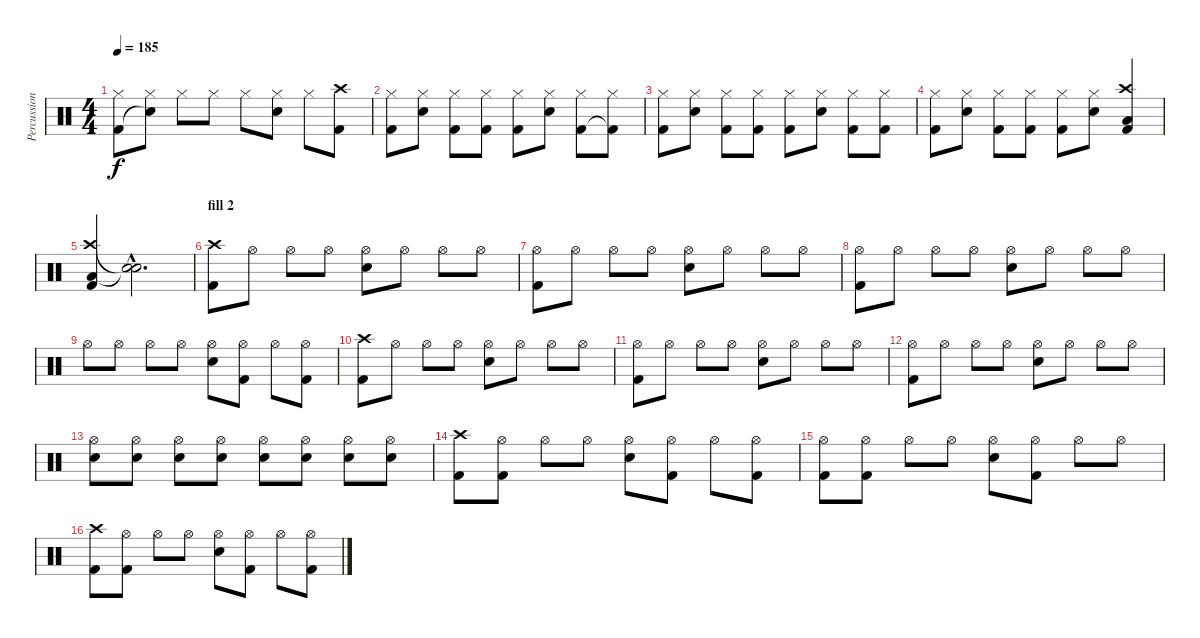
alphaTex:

\track ("Percussion" "Percussion") {instrument percussion}
\staff {score}
\articulation defaults
\ts (4 4)
\tempo 185
\clef neutral
\ks c
("Hi-Hat (closed)" "Kick (hit) 2").8{dy f} ("Hi-Hat (closed)" "Snare (hit)"{t}).8 "Hi-Hat (closed)".8 "Hi-Hat (closed)".8 "Hi-Hat (closed)".8 ("Hi-Hat (closed)" "Snare (hit) 2").8 "Hi-Hat (closed)".8 ("Crash high (hit)" "Kick (hit) 2").8 |
("Hi-Hat (closed)" "Kick (hit) 2").8 ("Hi-Hat (closed)" "Snare (hit) 2").8 ("Hi-Hat (closed)" "Kick (hit) 2").8 ("Hi-Hat (closed)" "Kick (hit) 2").8 ("Hi-Hat (closed)" "Kick (hit) 2").8 ("Hi-Hat (closed)" "Snare (hit) 2").8 ("Hi-Hat (closed)" "Kick (hit) 2").8 ("Hi-Hat (closed)" "Kick (hit) 2"{t}).8 |
("Hi-Hat (closed)" "Kick (hit) 2").8 ("Hi-Hat (closed)" "Snare (hit) 2").8 ("Hi-Hat (closed)" "Kick (hit) 2").8 ("Hi-Hat (closed)" "Kick (hit) 2").8 ("Hi-Hat (closed)" "Kick (hit) 2").8 ("Hi-Hat (closed)" "Snare (hit) 2").8 ("Hi-Hat (closed)" "Kick (hit) 2").8 ("Hi-Hat (closed)" "Kick (hit) 2").8 |
("Hi-Hat (closed)" "Kick (hit) 2").8 ("Hi-Hat (closed)" "Snare (hit) 2").8 ("Hi-Hat (closed)" "Kick (hit) 2").8 ("Hi-Hat (closed)" "Kick (hit) 2").8 ("Hi-Hat (closed)" "Kick (hit) 2").8 ("Hi-Hat (closed)" "Snare (hit) 2").8 ("Crash high (hit)" "Low Tom (hit)" "Kick (hit) 2").4 |
("Crash high (hit)" "Low Tom (hit)" "Kick (hit) 2").4 ("Snare (hit)"{hac t} "Snare (hit)"{hac t}).2{d} |
\section ("" "fill 2")
("Crash high (hit)" "Kick (hit) 2").8 "Hi-Hat (open)".8 "Hi-Hat (open)".8 "Hi-Hat (open)".8 ("Hi-Hat (open)" "Snare (hit) 2").8 "Hi-Hat (open)".8 "Hi-Hat (open)".8 "Hi-Hat (open)".8 |
("Hi-Hat (open)" "Kick (hit) 2").8 "Hi-Hat (open)".8 "Hi-Hat (open)".8 "Hi-Hat (open)".8 ("Hi-Hat (open)" "Snare (hit) 2").8 "Hi-Hat (open)".8 "Hi-Hat (open)".8 "Hi-Hat (open)".8 |
("Hi-Hat (open)" "Kick (hit) 2").8 "Hi-Hat (open)".8 "Hi-Hat (open)".8 "Hi-Hat (open)".8 ("Hi-Hat (open)" "Snare (hit) 2").8 "Hi-Hat (open)".8 "Hi-Hat (open)".8 "Hi-Hat (open)".8 |
"Hi-Hat (open)".8 "Hi-Hat (open)".8 "Hi-Hat (open)".8 "Hi-Hat (open)".8 ("Hi-Hat (open)" "Snare (hit) 2").8 ("Hi-Hat (open)" "Kick (hit) 2").8 "Hi-Hat (open)".8 ("Hi-Hat (open)" "Kick (hit) 2").8 |
("Crash high (hit)" "Kick (hit) 2").8 "Hi-Hat (open)".8 "Hi-Hat (open)".8 "Hi-Hat (open)".8 ("Hi-Hat (open)" "Snare (hit) 2").8 "Hi-Hat (open)".8 "Hi-Hat (open)".8 "Hi-Hat (open)".8 |
("Hi-Hat (open)" "Kick (hit) 2").8 "Hi-Hat (open)".8 "Hi-Hat (open)".8 "Hi-Hat (open)".8 ("Hi-Hat (open)" "Snare (hit) 2").8 "Hi-Hat (open)".8 "Hi-Hat (open)".8 "Hi-Hat (open)".8 |
("Hi-Hat (open)" "Kick (hit) 2").8 "Hi-Hat (open)".8 "Hi-Hat (open)".8 "Hi-Hat (open)".8 ("Hi-Hat (open)" "Snare (hit) 2").8 "Hi-Hat (open)".8 "Hi-Hat (open)".8 "Hi-Hat (open)".8 |
("Hi-Hat (open)" "Snare (hit) 2").8 ("Hi-Hat (open)" "Snare (hit) 2").8 ("Hi-Hat (open)" "Snare (hit) 2").8 ("Hi-Hat (open)" "Snare (hit) 2").8 ("Hi-Hat (open)" "Snare (hit) 2").8 ("Hi-Hat (open)" "Snare (hit) 2").8 ("Hi-Hat (open)" "Snare (hit) 2").8 ("Hi-Hat (open)" "Snare (hit) 2").8 |
\section ("" "")
("Crash high (hit)" "Kick (hit) 2").8 ("Hi-Hat (open)" "Kick (hit) 2").8 "Hi-Hat (open)".8 "Hi-Hat (open)".8 ("Hi-Hat (open)" "Snare (hit) 2").8 ("Hi-Hat (open)" "Kick (hit) 2").8 "Hi-Hat (open)".8 ("Hi-Hat (open)" "Kick (hit) 2").8 |
("Hi-Hat (open)" "Kick (hit) 2").8 ("Hi-Hat (open)" "Kick (hit) 2").8 "Hi-Hat (open)".8 "Hi-Hat (open)".8 ("Hi-Hat (open)" "Snare (hit) 2").8 ("Hi-Hat (open)" "Kick (hit) 2").8 "Hi-Hat (open)".8 "Hi-Hat (open)".8 |
("Crash high (hit)" "Kick (hit) 2").8 ("Hi-Hat (open)" "Kick (hit) 2").8 "Hi-Hat (open)".8 "Hi-Hat (open)".8 ("Hi-Hat (open)" "Snare (hit) 2").8 ("Hi-Hat (open)" "Kick (hit) 2").8 "Hi-Hat (open)".8 ("Hi-Hat (open)" "Kick (hit) 2").8
